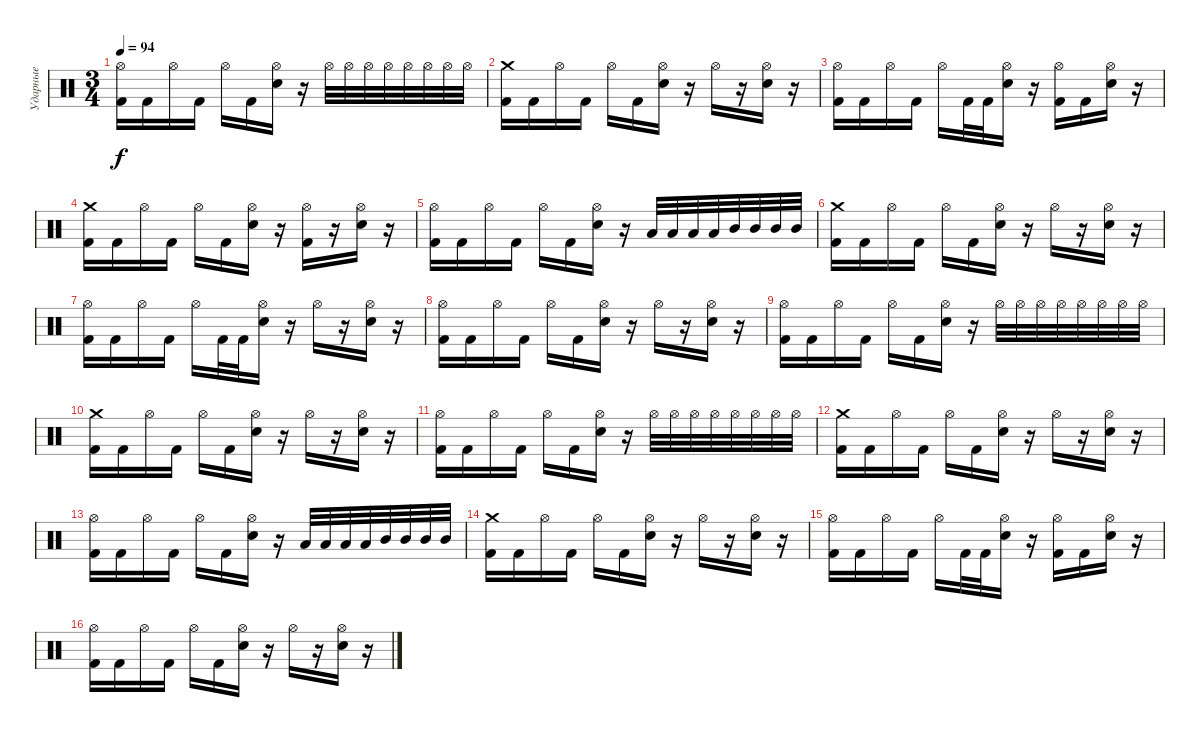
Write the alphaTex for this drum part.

\track ("Ударные" "Ударные") {instrument percussion}
\staff {score}
\articulation defaults
\ts (3 4)
\tempo 94
\clef neutral
\ks c
("Hi-Hat (open)" "Kick (hit) 2").16{dy f} "Kick (hit) 2".16 "Hi-Hat (open)".16 "Kick (hit) 2".16 "Hi-Hat (open)".16 "Kick (hit) 2".16 ("Hi-Hat (open)" "Electric Snare (hit)").16 r.16 "Hi-Hat (open)".32 "Hi-Hat (open)".32 "Hi-Hat (open)".32 "Hi-Hat (open)".32 "Hi-Hat (open)".32 "Hi-Hat (open)".32 "Hi-Hat (open)".32 "Hi-Hat (open)".32 |
("Crash medium (hit)" "Kick (hit) 2").16 "Kick (hit) 2".16 "Hi-Hat (open)".16 "Kick (hit) 2".16 "Hi-Hat (open)".16 "Kick (hit) 2".16 ("Hi-Hat (open)" "Electric Snare (hit)").16 r.16 "Hi-Hat (open)".16 r.16 ("Hi-Hat (open)" "Electric Snare (hit)").16 r.16 |
("Hi-Hat (open)" "Kick (hit) 2").16 "Kick (hit) 2".16 "Hi-Hat (open)".16 "Kick (hit) 2".16 "Hi-Hat (open)".16 "Kick (hit) 2".32 "Kick (hit) 2".32 ("Hi-Hat (open)" "Electric Snare (hit)").16 r.16 ("Hi-Hat (open)" "Kick (hit) 2").16 "Kick (hit) 2".16 ("Hi-Hat (open)" "Electric Snare (hit)").16 r.16 |
("Crash medium (hit)" "Kick (hit) 2").16 "Kick (hit) 2".16 "Hi-Hat (open)".16 "Kick (hit) 2".16 "Hi-Hat (open)".16 "Kick (hit) 2".16 ("Hi-Hat (open)" "Electric Snare (hit)").16 r.16 ("Hi-Hat (open)" "Kick (hit) 2").16 r.16 ("Hi-Hat (open)" "Electric Snare (hit)").16 r.16 |
("Hi-Hat (open)" "Kick (hit) 2").16 "Kick (hit) 2".16 "Hi-Hat (open)".16 "Kick (hit) 2".16 "Hi-Hat (open)".16 "Kick (hit) 2".16 ("Hi-Hat (open)" "Electric Snare (hit)").16 r.16 "Low Tom (hit)".32 "Low Tom (hit)".32 "Low Tom (hit)".32 "Low Tom (hit)".32 "Mid Tom (hit)".32 "Mid Tom (hit)".32 "Mid Tom (hit)".32 "Mid Tom (hit)".32 |
("Crash medium (hit)" "Kick (hit) 2").16 "Kick (hit) 2".16 "Hi-Hat (open)".16 "Kick (hit) 2".16 "Hi-Hat (open)".16 "Kick (hit) 2".16 ("Hi-Hat (open)" "Electric Snare (hit)").16 r.16 "Hi-Hat (open)".16 r.16 ("Hi-Hat (open)" "Electric Snare (hit)").16 r.16 |
("Hi-Hat (open)" "Kick (hit) 2").16 "Kick (hit) 2".16 "Hi-Hat (open)".16 "Kick (hit) 2".16 "Hi-Hat (open)".16 "Kick (hit) 2".32 "Kick (hit) 2".32 ("Hi-Hat (open)" "Electric Snare (hit)").16 r.16 "Hi-Hat (open)".16 r.16 ("Hi-Hat (open)" "Electric Snare (hit)").16 r.16 |
("Hi-Hat (open)" "Kick (hit) 2").16 "Kick (hit) 2".16 "Hi-Hat (open)".16 "Kick (hit) 2".16 "Hi-Hat (open)".16 "Kick (hit) 2".16 ("Hi-Hat (open)" "Electric Snare (hit)").16 r.16 "Hi-Hat (open)".16 r.16 ("Hi-Hat (open)" "Electric Snare (hit)").16 r.16 |
("Hi-Hat (open)" "Kick (hit) 2").16 "Kick (hit) 2".16 "Hi-Hat (open)".16 "Kick (hit) 2".16 "Hi-Hat (open)".16 "Kick (hit) 2".16 ("Hi-Hat (open)" "Electric Snare (hit)").16 r.16 "Hi-Hat (open)".32 "Hi-Hat (open)".32 "Hi-Hat (open)".32 "Hi-Hat (open)".32 "Hi-Hat (open)".32 "Hi-Hat (open)".32 "Hi-Hat (open)".32 "Hi-Hat (open)".32 |
("Crash medium (hit)" "Kick (hit) 2").16 "Kick (hit) 2".16 "Hi-Hat (open)".16 "Kick (hit) 2".16 "Hi-Hat (open)".16 "Kick (hit) 2".16 ("Hi-Hat (open)" "Electric Snare (hit)").16 r.16 "Hi-Hat (open)".16 r.16 ("Hi-Hat (open)" "Electric Snare (hit)").16 r.16 |
("Hi-Hat (open)" "Kick (hit) 2").16 "Kick (hit) 2".16 "Hi-Hat (open)".16 "Kick (hit) 2".16 "Hi-Hat (open)".16 "Kick (hit) 2".16 ("Hi-Hat (open)" "Electric Snare (hit)").16 r.16 "Hi-Hat (open)".32 "Hi-Hat (open)".32 "Hi-Hat (open)".32 "Hi-Hat (open)".32 "Hi-Hat (open)".32 "Hi-Hat (open)".32 "Hi-Hat (open)".32 "Hi-Hat (open)".32 |
("Crash medium (hit)" "Kick (hit) 2").16 "Kick (hit) 2".16 "Hi-Hat (open)".16 "Kick (hit) 2".16 "Hi-Hat (open)".16 "Kick (hit) 2".16 ("Hi-Hat (open)" "Electric Snare (hit)").16 r.16 "Hi-Hat (open)".16 r.16 ("Hi-Hat (open)" "Electric Snare (hit)").16 r.16 |
("Hi-Hat (open)" "Kick (hit) 2").16 "Kick (hit) 2".16 "Hi-Hat (open)".16 "Kick (hit) 2".16 "Hi-Hat (open)".16 "Kick (hit) 2".16 ("Hi-Hat (open)" "Electric Snare (hit)").16 r.16 "Low Tom (hit)".32 "Low Tom (hit)".32 "Low Tom (hit)".32 "Low Tom (hit)".32 "Mid Tom (hit)".32 "Mid Tom (hit)".32 "Mid Tom (hit)".32 "Mid Tom (hit)".32 |
("Crash medium (hit)" "Kick (hit) 2").16 "Kick (hit) 2".16 "Hi-Hat (open)".16 "Kick (hit) 2".16 "Hi-Hat (open)".16 "Kick (hit) 2".16 ("Hi-Hat (open)" "Electric Snare (hit)").16 r.16 "Hi-Hat (open)".16 r.16 ("Hi-Hat (open)" "Electric Snare (hit)").16 r.16 |
("Hi-Hat (open)" "Kick (hit) 2").16 "Kick (hit) 2".16 "Hi-Hat (open)".16 "Kick (hit) 2".16 "Hi-Hat (open)".16 "Kick (hit) 2".32 "Kick (hit) 2".32 ("Hi-Hat (open)" "Electric Snare (hit)").16 r.16 ("Hi-Hat (open)" "Kick (hit) 2").16 "Kick (hit) 2".16 ("Hi-Hat (open)" "Electric Snare (hit)").16 r.16 |
("Hi-Hat (open)" "Kick (hit) 2").16 "Kick (hit) 2".16 "Hi-Hat (open)".16 "Kick (hit) 2".16 "Hi-Hat (open)".16 "Kick (hit) 2".16 ("Hi-Hat (open)" "Electric Snare (hit)").16 r.16 "Hi-Hat (open)".16 r.16 ("Hi-Hat (open)" "Electric Snare (hit)").16 r.16
